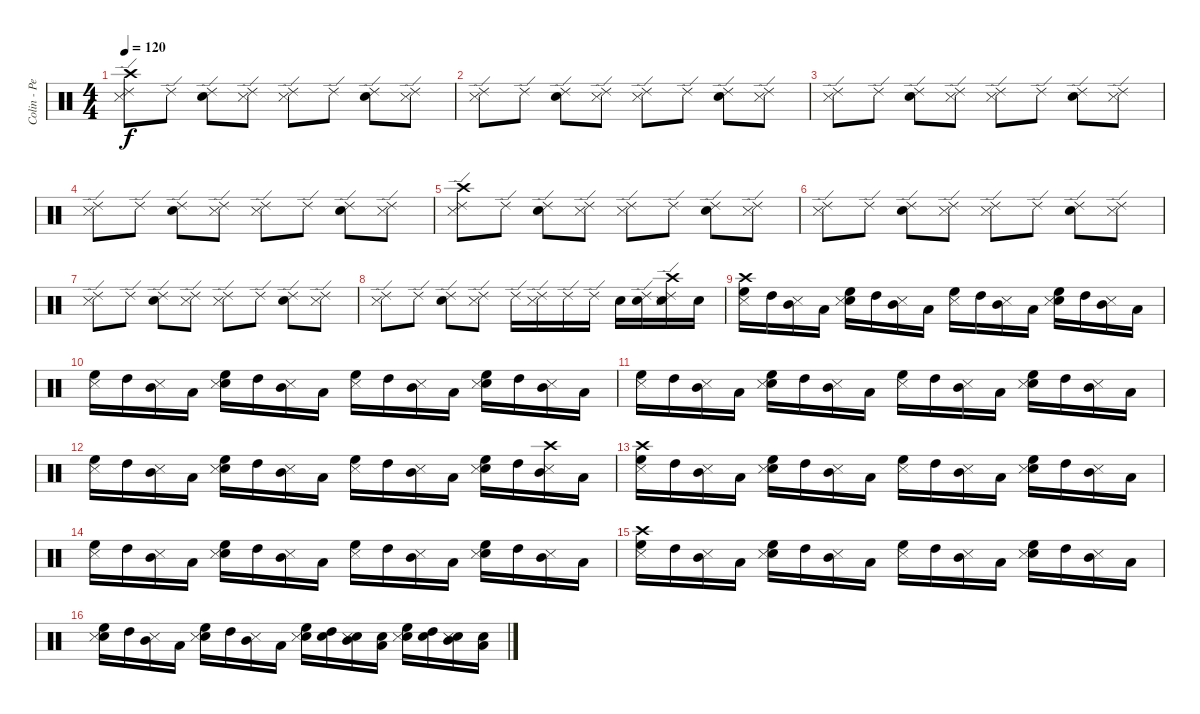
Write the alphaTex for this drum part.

\track ("Colin - Percussion" "Colin - Pe") {instrument percussion}
\staff {score}
\articulation defaults
\ts (4 4)
\tempo 120
\clef neutral
\ks c
("Ride (edge) 2" "Crash high (hit)" "Metronome (hit)").8{dy f} "Ride (edge) 2".8 ("Ride (edge) 2" "Electric Snare (hit)").8 ("Ride (edge) 2" "Metronome (hit)").8 ("Ride (edge) 2" "Metronome (hit)").8 "Ride (edge) 2".8 ("Ride (edge) 2" "Electric Snare (hit)").8 ("Ride (edge) 2" "Metronome (hit)").8 |
("Ride (edge) 2" "Metronome (hit)").8 "Ride (edge) 2".8 ("Ride (edge) 2" "Electric Snare (hit)").8 ("Ride (edge) 2" "Metronome (hit)").8 ("Ride (edge) 2" "Metronome (hit)").8 "Ride (edge) 2".8 ("Ride (edge) 2" "Electric Snare (hit)").8 ("Ride (edge) 2" "Metronome (hit)").8 |
("Ride (edge) 2" "Metronome (hit)").8 "Ride (edge) 2".8 ("Ride (edge) 2" "Electric Snare (hit)").8 ("Ride (edge) 2" "Metronome (hit)").8 ("Ride (edge) 2" "Metronome (hit)").8 "Ride (edge) 2".8 ("Ride (edge) 2" "Electric Snare (hit)").8 ("Ride (edge) 2" "Metronome (hit)").8 |
("Ride (edge) 2" "Metronome (hit)").8 "Ride (edge) 2".8 ("Ride (edge) 2" "Electric Snare (hit)").8 ("Ride (edge) 2" "Metronome (hit)").8 ("Ride (edge) 2" "Metronome (hit)").8 "Ride (edge) 2".8 ("Ride (edge) 2" "Electric Snare (hit)").8 ("Ride (edge) 2" "Metronome (hit)").8 |
("Ride (edge) 2" "Crash high (hit)" "Metronome (hit)").8 "Ride (edge) 2".8 ("Ride (edge) 2" "Electric Snare (hit)").8 ("Ride (edge) 2" "Metronome (hit)").8 ("Ride (edge) 2" "Metronome (hit)").8 "Ride (edge) 2".8 ("Ride (edge) 2" "Electric Snare (hit)").8 ("Ride (edge) 2" "Metronome (hit)").8 |
("Ride (edge) 2" "Metronome (hit)").8 "Ride (edge) 2".8 ("Ride (edge) 2" "Electric Snare (hit)").8 ("Ride (edge) 2" "Metronome (hit)").8 ("Ride (edge) 2" "Metronome (hit)").8 "Ride (edge) 2".8 ("Ride (edge) 2" "Electric Snare (hit)").8 ("Ride (edge) 2" "Metronome (hit)").8 |
("Ride (edge) 2" "Metronome (hit)").8 "Ride (edge) 2".8 ("Ride (edge) 2" "Electric Snare (hit)").8 ("Ride (edge) 2" "Metronome (hit)").8 ("Ride (edge) 2" "Metronome (hit)").8 "Ride (edge) 2".8 ("Ride (edge) 2" "Electric Snare (hit)").8 ("Ride (edge) 2" "Metronome (hit)").8 |
("Ride (edge) 2" "Metronome (hit)").8 "Ride (edge) 2".8 ("Ride (edge) 2" "Electric Snare (hit)").8 ("Ride (edge) 2" "Metronome (hit)").8 "Ride (edge) 2".16 ("Ride (edge) 2" "Metronome (hit)").16 "Ride (edge) 2".16 "Ride (edge) 2".16 "Electric Snare (hit)".16 ("Ride (edge) 2" "Electric Snare (hit)").16 ("Ride (edge) 2" "Crash high (hit)" "Electric Snare (hit)" "Metronome (hit)").16 "Electric Snare (hit)".16 |
("Crash high (hit)" "High Floor Tom (hit)" "Metronome (hit)").16 "High Tom (hit)".16 ("Mid Tom (hit)" "Metronome (hit)").16 "Low Tom (hit)".16 ("High Floor Tom (hit)" "Electric Snare (hit)" "Metronome (hit)").16 "High Tom (hit)".16 ("Mid Tom (hit)" "Metronome (hit)").16 "Low Tom (hit)".16 ("High Floor Tom (hit)" "Metronome (hit)").16 "High Tom (hit)".16 ("Mid Tom (hit)" "Metronome (hit)").16 "Low Tom (hit)".16 ("High Floor Tom (hit)" "Electric Snare (hit)" "Metronome (hit)").16 "High Tom (hit)".16 ("Mid Tom (hit)" "Metronome (hit)").16 "Low Tom (hit)".16 |
("High Floor Tom (hit)" "Metronome (hit)").16 "High Tom (hit)".16 ("Mid Tom (hit)" "Metronome (hit)").16 "Low Tom (hit)".16 ("High Floor Tom (hit)" "Electric Snare (hit)" "Metronome (hit)").16 "High Tom (hit)".16 ("Mid Tom (hit)" "Metronome (hit)").16 "Low Tom (hit)".16 ("High Floor Tom (hit)" "Metronome (hit)").16 "High Tom (hit)".16 ("Mid Tom (hit)" "Metronome (hit)").16 "Low Tom (hit)".16 ("High Floor Tom (hit)" "Electric Snare (hit)" "Metronome (hit)").16 "High Tom (hit)".16 ("Mid Tom (hit)" "Metronome (hit)").16 "Low Tom (hit)".16 |
("High Floor Tom (hit)" "Metronome (hit)").16 "High Tom (hit)".16 ("Mid Tom (hit)" "Metronome (hit)").16 "Low Tom (hit)".16 ("High Floor Tom (hit)" "Electric Snare (hit)" "Metronome (hit)").16 "High Tom (hit)".16 ("Mid Tom (hit)" "Metronome (hit)").16 "Low Tom (hit)".16 ("High Floor Tom (hit)" "Metronome (hit)").16 "High Tom (hit)".16 ("Mid Tom (hit)" "Metronome (hit)").16 "Low Tom (hit)".16 ("High Floor Tom (hit)" "Electric Snare (hit)" "Metronome (hit)").16 "High Tom (hit)".16 ("Mid Tom (hit)" "Metronome (hit)").16 "Low Tom (hit)".16 |
("High Floor Tom (hit)" "Metronome (hit)").16 "High Tom (hit)".16 ("Mid Tom (hit)" "Metronome (hit)").16 "Low Tom (hit)".16 ("High Floor Tom (hit)" "Electric Snare (hit)" "Metronome (hit)").16 "High Tom (hit)".16 ("Mid Tom (hit)" "Metronome (hit)").16 "Low Tom (hit)".16 ("High Floor Tom (hit)" "Metronome (hit)").16 "High Tom (hit)".16 ("Mid Tom (hit)" "Metronome (hit)").16 "Low Tom (hit)".16 ("High Floor Tom (hit)" "Electric Snare (hit)" "Metronome (hit)").16 "High Tom (hit)".16 ("Crash high (hit)" "Mid Tom (hit)" "Metronome (hit)").16 "Low Tom (hit)".16 |
("Crash high (hit)" "High Floor Tom (hit)" "Metronome (hit)").16 "High Tom (hit)".16 ("Mid Tom (hit)" "Metronome (hit)").16 "Low Tom (hit)".16 ("High Floor Tom (hit)" "Electric Snare (hit)" "Metronome (hit)").16 "High Tom (hit)".16 ("Mid Tom (hit)" "Metronome (hit)").16 "Low Tom (hit)".16 ("High Floor Tom (hit)" "Metronome (hit)").16 "High Tom (hit)".16 ("Mid Tom (hit)" "Metronome (hit)").16 "Low Tom (hit)".16 ("High Floor Tom (hit)" "Electric Snare (hit)" "Metronome (hit)").16 "High Tom (hit)".16 ("Mid Tom (hit)" "Metronome (hit)").16 "Low Tom (hit)".16 |
("High Floor Tom (hit)" "Metronome (hit)").16 "High Tom (hit)".16 ("Mid Tom (hit)" "Metronome (hit)").16 "Low Tom (hit)".16 ("High Floor Tom (hit)" "Electric Snare (hit)" "Metronome (hit)").16 "High Tom (hit)".16 ("Mid Tom (hit)" "Metronome (hit)").16 "Low Tom (hit)".16 ("High Floor Tom (hit)" "Metronome (hit)").16 "High Tom (hit)".16 ("Mid Tom (hit)" "Metronome (hit)").16 "Low Tom (hit)".16 ("High Floor Tom (hit)" "Electric Snare (hit)" "Metronome (hit)").16 "High Tom (hit)".16 ("Mid Tom (hit)" "Metronome (hit)").16 "Low Tom (hit)".16 |
("Crash high (hit)" "High Floor Tom (hit)" "Metronome (hit)").16 "High Tom (hit)".16 ("Mid Tom (hit)" "Metronome (hit)").16 "Low Tom (hit)".16 ("High Floor Tom (hit)" "Electric Snare (hit)" "Metronome (hit)").16 "High Tom (hit)".16 ("Mid Tom (hit)" "Metronome (hit)").16 "Low Tom (hit)".16 ("High Floor Tom (hit)" "Metronome (hit)").16 "High Tom (hit)".16 ("Mid Tom (hit)" "Metronome (hit)").16 "Low Tom (hit)".16 ("High Floor Tom (hit)" "Electric Snare (hit)" "Metronome (hit)").16 "High Tom (hit)".16 ("Mid Tom (hit)" "Metronome (hit)").16 "Low Tom (hit)".16 |
("High Floor Tom (hit)" "Electric Snare (hit)" "Metronome (hit)").16 "High Tom (hit)".16 ("Mid Tom (hit)" "Metronome (hit)").16 "Low Tom (hit)".16 ("High Floor Tom (hit)" "Electric Snare (hit)" "Metronome (hit)").16 "High Tom (hit)".16 ("Mid Tom (hit)" "Metronome (hit)").16 "Low Tom (hit)".16 ("High Floor Tom (hit)" "Electric Snare (hit)" "Metronome (hit)").16 ("High Tom (hit)" "Electric Snare (hit)").16 ("Mid Tom (hit)" "Electric Snare (hit)" "Metronome (hit)").16 ("Low Tom (hit)" "Electric Snare (hit)").16 ("High Floor Tom (hit)" "Electric Snare (hit)" "Metronome (hit)").16 ("High Tom (hit)" "Electric Snare (hit)").16 ("Mid Tom (hit)" "Electric Snare (hit)" "Metronome (hit)").16 ("Low Tom (hit)" "Electric Snare (hit)").16
